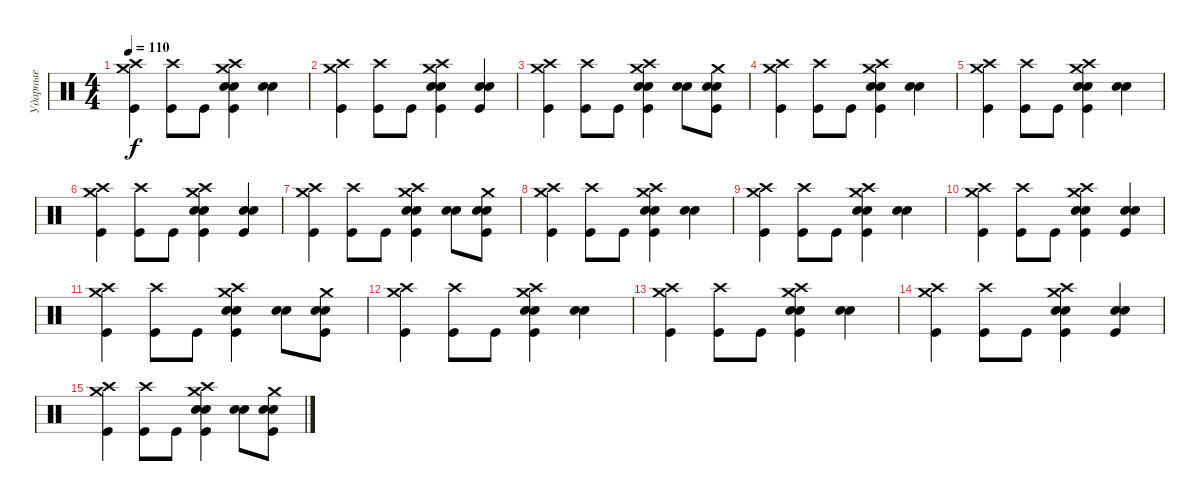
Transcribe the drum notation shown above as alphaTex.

\track ("Ударные" "Ударные") {instrument percussion}
\staff {score}
\articulation defaults
\ts (4 4)
\tempo 110
\clef neutral
\ks c
("Crash high (hit)" "Crash medium (hit)" "Kick (hit)").4{dy f} ("Crash high (hit)" "Kick (hit)").8 "Kick (hit)".8 ("Crash high (hit)" "Crash medium (hit)" "Snare (hit) 2" "Snare (hit) 2" "Kick (hit)").4 ("Snare (hit) 2" "Snare (hit) 2").4 |
("Crash high (hit)" "Crash medium (hit)" "Kick (hit)").4 ("Crash high (hit)" "Kick (hit)").8 "Kick (hit)".8 ("Crash high (hit)" "Crash medium (hit)" "Snare (hit) 2" "Snare (hit) 2" "Kick (hit)").4 ("Snare (hit) 2" "Snare (hit) 2" "Kick (hit)").4 |
("Crash high (hit)" "Crash medium (hit)" "Kick (hit)").4 ("Crash high (hit)" "Kick (hit)").8 "Kick (hit)".8 ("Crash high (hit)" "Crash medium (hit)" "Snare (hit) 2" "Snare (hit) 2" "Kick (hit)").4 ("Snare (hit) 2" "Snare (hit) 2").8 ("Crash medium (hit)" "Snare (hit) 2" "Snare (hit) 2" "Kick (hit)").8 |
("Crash high (hit)" "Crash medium (hit)" "Kick (hit)").4 ("Crash high (hit)" "Kick (hit)").8 "Kick (hit)".8 ("Crash high (hit)" "Crash medium (hit)" "Snare (hit) 2" "Snare (hit) 2" "Kick (hit)").4 ("Snare (hit) 2" "Snare (hit) 2").4 |
("Crash high (hit)" "Crash medium (hit)" "Kick (hit)").4 ("Crash high (hit)" "Kick (hit)").8 "Kick (hit)".8 ("Crash high (hit)" "Crash medium (hit)" "Snare (hit) 2" "Snare (hit) 2" "Kick (hit)").4 ("Snare (hit) 2" "Snare (hit) 2").4 |
("Crash high (hit)" "Crash medium (hit)" "Kick (hit)").4 ("Crash high (hit)" "Kick (hit)").8 "Kick (hit)".8 ("Crash high (hit)" "Crash medium (hit)" "Snare (hit) 2" "Snare (hit) 2" "Kick (hit)").4 ("Snare (hit) 2" "Snare (hit) 2" "Kick (hit)").4 |
("Crash high (hit)" "Crash medium (hit)" "Kick (hit)").4 ("Crash high (hit)" "Kick (hit)").8 "Kick (hit)".8 ("Crash high (hit)" "Crash medium (hit)" "Snare (hit) 2" "Snare (hit) 2" "Kick (hit)").4 ("Snare (hit) 2" "Snare (hit) 2").8 ("Crash medium (hit)" "Snare (hit) 2" "Snare (hit) 2" "Kick (hit)").8 |
("Crash high (hit)" "Crash medium (hit)" "Kick (hit)").4 ("Crash high (hit)" "Kick (hit)").8 "Kick (hit)".8 ("Crash high (hit)" "Crash medium (hit)" "Snare (hit) 2" "Snare (hit) 2" "Kick (hit)").4 ("Snare (hit) 2" "Snare (hit) 2").4 |
("Crash high (hit)" "Crash medium (hit)" "Kick (hit)").4 ("Crash high (hit)" "Kick (hit)").8 "Kick (hit)".8 ("Crash high (hit)" "Crash medium (hit)" "Snare (hit) 2" "Snare (hit) 2" "Kick (hit)").4 ("Snare (hit) 2" "Snare (hit) 2").4 |
("Crash high (hit)" "Crash medium (hit)" "Kick (hit)").4 ("Crash high (hit)" "Kick (hit)").8 "Kick (hit)".8 ("Crash high (hit)" "Crash medium (hit)" "Snare (hit) 2" "Snare (hit) 2" "Kick (hit)").4 ("Snare (hit) 2" "Snare (hit) 2" "Kick (hit)").4 |
("Crash high (hit)" "Crash medium (hit)" "Kick (hit)").4 ("Crash high (hit)" "Kick (hit)").8 "Kick (hit)".8 ("Crash high (hit)" "Crash medium (hit)" "Snare (hit) 2" "Snare (hit) 2" "Kick (hit)").4 ("Snare (hit) 2" "Snare (hit) 2").8 ("Crash medium (hit)" "Snare (hit) 2" "Snare (hit) 2" "Kick (hit)").8 |
("Crash high (hit)" "Crash medium (hit)" "Kick (hit)").4 ("Crash high (hit)" "Kick (hit)").8 "Kick (hit)".8 ("Crash high (hit)" "Crash medium (hit)" "Snare (hit) 2" "Snare (hit) 2" "Kick (hit)").4 ("Snare (hit) 2" "Snare (hit) 2").4 |
("Crash high (hit)" "Crash medium (hit)" "Kick (hit)").4 ("Crash high (hit)" "Kick (hit)").8 "Kick (hit)".8 ("Crash high (hit)" "Crash medium (hit)" "Snare (hit) 2" "Snare (hit) 2" "Kick (hit)").4 ("Snare (hit) 2" "Snare (hit) 2").4 |
("Crash high (hit)" "Crash medium (hit)" "Kick (hit)").4 ("Crash high (hit)" "Kick (hit)").8 "Kick (hit)".8 ("Crash high (hit)" "Crash medium (hit)" "Snare (hit) 2" "Snare (hit) 2" "Kick (hit)").4 ("Snare (hit) 2" "Snare (hit) 2" "Kick (hit)").4 |
("Crash high (hit)" "Crash medium (hit)" "Kick (hit)").4 ("Crash high (hit)" "Kick (hit)").8 "Kick (hit)".8 ("Crash high (hit)" "Crash medium (hit)" "Snare (hit) 2" "Snare (hit) 2" "Kick (hit)").4 ("Snare (hit) 2" "Snare (hit) 2").8 ("Crash medium (hit)" "Snare (hit) 2" "Snare (hit) 2" "Kick (hit)").8
